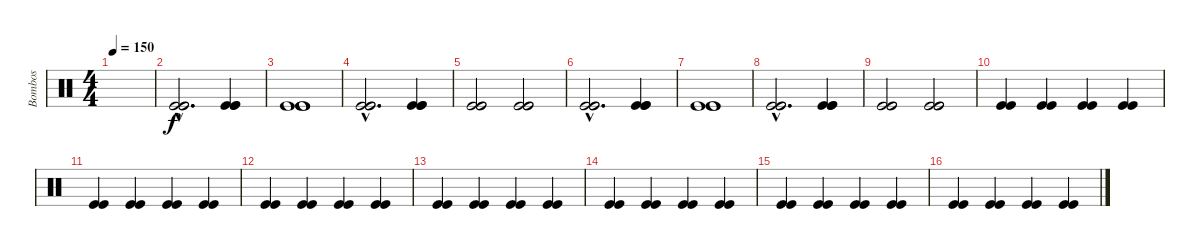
\track ("Bombos" "Bombos") {instrument percussion}
\staff {score}
\articulation defaults
\ts (4 4)
\tempo 150
\clef neutral
\ks c
|
("Kick (hit)"{hac} "Kick (hit)"{hac} "Kick (hit)"{hac}).2{d} ("Kick (hit)" "Kick (hit)" "Kick (hit)").4 |
("Kick (hit)" "Kick (hit)" "Kick (hit)").1 |
("Kick (hit)"{hac} "Kick (hit)"{hac} "Kick (hit)"{hac}).2{d} ("Kick (hit)" "Kick (hit)" "Kick (hit)").4 |
("Kick (hit)" "Kick (hit)" "Kick (hit)").2 ("Kick (hit)" "Kick (hit)" "Kick (hit)").2 |
("Kick (hit)"{hac} "Kick (hit)"{hac} "Kick (hit)"{hac}).2{d} ("Kick (hit)" "Kick (hit)" "Kick (hit)").4 |
("Kick (hit)" "Kick (hit)" "Kick (hit)").1 |
("Kick (hit)"{hac} "Kick (hit)"{hac} "Kick (hit)"{hac}).2{d} ("Kick (hit)" "Kick (hit)" "Kick (hit)").4 |
("Kick (hit)" "Kick (hit)" "Kick (hit)").2 ("Kick (hit)" "Kick (hit)" "Kick (hit)").2 |
("Kick (hit)" "Kick (hit)").4 ("Kick (hit)" "Kick (hit)").4 ("Kick (hit)" "Kick (hit)").4 ("Kick (hit)" "Kick (hit)").4 |
("Kick (hit)" "Kick (hit)").4 ("Kick (hit)" "Kick (hit)").4 ("Kick (hit)" "Kick (hit)").4 ("Kick (hit)" "Kick (hit)").4 |
("Kick (hit)" "Kick (hit)").4 ("Kick (hit)" "Kick (hit)").4 ("Kick (hit)" "Kick (hit)").4 ("Kick (hit)" "Kick (hit)").4 |
("Kick (hit)" "Kick (hit)").4 ("Kick (hit)" "Kick (hit)").4 ("Kick (hit)" "Kick (hit)").4 ("Kick (hit)" "Kick (hit)").4 |
("Kick (hit)" "Kick (hit)").4 ("Kick (hit)" "Kick (hit)").4 ("Kick (hit)" "Kick (hit)").4 ("Kick (hit)" "Kick (hit)").4 |
("Kick (hit)" "Kick (hit)").4 ("Kick (hit)" "Kick (hit)").4 ("Kick (hit)" "Kick (hit)").4 ("Kick (hit)" "Kick (hit)").4 |
("Kick (hit)" "Kick (hit)").4 ("Kick (hit)" "Kick (hit)").4 ("Kick (hit)" "Kick (hit)").4 ("Kick (hit)" "Kick (hit)").4
